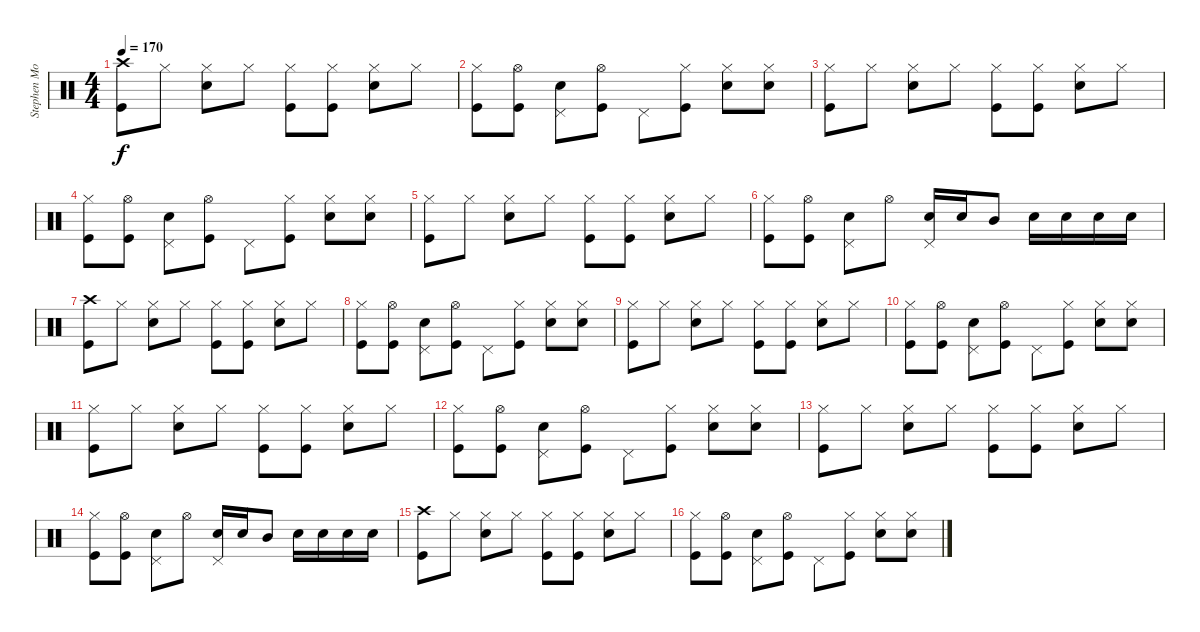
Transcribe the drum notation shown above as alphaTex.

\track ("Stephen Morris (Drums)" "Stephen Mo") {instrument percussion}
\staff {score}
\articulation defaults
\ts (4 4)
\tempo 170
\clef neutral
\ks c
("Crash high (hit)" "Kick (hit)").8{dy f} "Hi-Hat (closed)".8 ("Hi-Hat (closed)" "Electric Snare (hit)").8 "Hi-Hat (closed)".8 ("Hi-Hat (closed)" "Kick (hit)").8 ("Hi-Hat (closed)" "Kick (hit)").8 ("Hi-Hat (closed)" "Electric Snare (hit)").8 "Hi-Hat (closed)".8 |
("Hi-Hat (closed)" "Kick (hit)").8 ("Hi-Hat (open)" "Kick (hit)").8 ("Pedal Hi-Hat (hit)" "Electric Snare (hit)").8 ("Hi-Hat (open)" "Kick (hit)").8 "Pedal Hi-Hat (hit)".8 ("Hi-Hat (closed)" "Kick (hit)").8 ("Hi-Hat (closed)" "Electric Snare (hit)").8 ("Hi-Hat (closed)" "Electric Snare (hit)").8 |
("Hi-Hat (closed)" "Kick (hit)").8 "Hi-Hat (closed)".8 ("Hi-Hat (closed)" "Electric Snare (hit)").8 "Hi-Hat (closed)".8 ("Hi-Hat (closed)" "Kick (hit)").8 ("Hi-Hat (closed)" "Kick (hit)").8 ("Hi-Hat (closed)" "Electric Snare (hit)").8 "Hi-Hat (closed)".8 |
("Hi-Hat (closed)" "Kick (hit)").8 ("Hi-Hat (open)" "Kick (hit)").8 ("Pedal Hi-Hat (hit)" "Electric Snare (hit)").8 ("Hi-Hat (open)" "Kick (hit)").8 "Pedal Hi-Hat (hit)".8 ("Hi-Hat (closed)" "Kick (hit)").8 ("Hi-Hat (closed)" "Electric Snare (hit)").8 ("Hi-Hat (closed)" "Electric Snare (hit)").8 |
("Hi-Hat (closed)" "Kick (hit)").8 "Hi-Hat (closed)".8 ("Hi-Hat (closed)" "Electric Snare (hit)").8 "Hi-Hat (closed)".8 ("Hi-Hat (closed)" "Kick (hit)").8 ("Hi-Hat (closed)" "Kick (hit)").8 ("Hi-Hat (closed)" "Electric Snare (hit)").8 "Hi-Hat (closed)".8 |
("Hi-Hat (closed)" "Kick (hit)").8 ("Hi-Hat (open)" "Kick (hit)").8 ("Pedal Hi-Hat (hit)" "Electric Snare (hit)").8 "Hi-Hat (open)".8 ("Pedal Hi-Hat (hit)" "Electric Snare (hit)").16 "Electric Snare (hit)".16 "Mid Tom (hit)".8 "Electric Snare (hit)".16 "Electric Snare (hit)".16 "Electric Snare (hit)".16 "Electric Snare (hit)".16 |
("Crash high (hit)" "Kick (hit)").8 "Hi-Hat (closed)".8 ("Hi-Hat (closed)" "Electric Snare (hit)").8 "Hi-Hat (closed)".8 ("Hi-Hat (closed)" "Kick (hit)").8 ("Hi-Hat (closed)" "Kick (hit)").8 ("Hi-Hat (closed)" "Electric Snare (hit)").8 "Hi-Hat (closed)".8 |
("Hi-Hat (closed)" "Kick (hit)").8 ("Hi-Hat (open)" "Kick (hit)").8 ("Pedal Hi-Hat (hit)" "Electric Snare (hit)").8 ("Hi-Hat (open)" "Kick (hit)").8 "Pedal Hi-Hat (hit)".8 ("Hi-Hat (closed)" "Kick (hit)").8 ("Hi-Hat (closed)" "Electric Snare (hit)").8 ("Hi-Hat (closed)" "Electric Snare (hit)").8 |
("Hi-Hat (closed)" "Kick (hit)").8 "Hi-Hat (closed)".8 ("Hi-Hat (closed)" "Electric Snare (hit)").8 "Hi-Hat (closed)".8 ("Hi-Hat (closed)" "Kick (hit)").8 ("Hi-Hat (closed)" "Kick (hit)").8 ("Hi-Hat (closed)" "Electric Snare (hit)").8 "Hi-Hat (closed)".8 |
("Hi-Hat (closed)" "Kick (hit)").8 ("Hi-Hat (open)" "Kick (hit)").8 ("Pedal Hi-Hat (hit)" "Electric Snare (hit)").8 ("Hi-Hat (open)" "Kick (hit)").8 "Pedal Hi-Hat (hit)".8 ("Hi-Hat (closed)" "Kick (hit)").8 ("Hi-Hat (closed)" "Electric Snare (hit)").8 ("Hi-Hat (closed)" "Electric Snare (hit)").8 |
("Hi-Hat (closed)" "Kick (hit)").8 "Hi-Hat (closed)".8 ("Hi-Hat (closed)" "Electric Snare (hit)").8 "Hi-Hat (closed)".8 ("Hi-Hat (closed)" "Kick (hit)").8 ("Hi-Hat (closed)" "Kick (hit)").8 ("Hi-Hat (closed)" "Electric Snare (hit)").8 "Hi-Hat (closed)".8 |
("Hi-Hat (closed)" "Kick (hit)").8 ("Hi-Hat (open)" "Kick (hit)").8 ("Pedal Hi-Hat (hit)" "Electric Snare (hit)").8 ("Hi-Hat (open)" "Kick (hit)").8 "Pedal Hi-Hat (hit)".8 ("Hi-Hat (closed)" "Kick (hit)").8 ("Hi-Hat (closed)" "Electric Snare (hit)").8 ("Hi-Hat (closed)" "Electric Snare (hit)").8 |
("Hi-Hat (closed)" "Kick (hit)").8 "Hi-Hat (closed)".8 ("Hi-Hat (closed)" "Electric Snare (hit)").8 "Hi-Hat (closed)".8 ("Hi-Hat (closed)" "Kick (hit)").8 ("Hi-Hat (closed)" "Kick (hit)").8 ("Hi-Hat (closed)" "Electric Snare (hit)").8 "Hi-Hat (closed)".8 |
("Hi-Hat (closed)" "Kick (hit)").8 ("Hi-Hat (open)" "Kick (hit)").8 ("Pedal Hi-Hat (hit)" "Electric Snare (hit)").8 "Hi-Hat (open)".8 ("Pedal Hi-Hat (hit)" "Electric Snare (hit)").16 "Electric Snare (hit)".16 "Mid Tom (hit)".8 "Electric Snare (hit)".16 "Electric Snare (hit)".16 "Electric Snare (hit)".16 "Electric Snare (hit)".16 |
("Crash high (hit)" "Kick (hit)").8 "Hi-Hat (closed)".8 ("Hi-Hat (closed)" "Electric Snare (hit)").8 "Hi-Hat (closed)".8 ("Hi-Hat (closed)" "Kick (hit)").8 ("Hi-Hat (closed)" "Kick (hit)").8 ("Hi-Hat (closed)" "Electric Snare (hit)").8 "Hi-Hat (closed)".8 |
("Hi-Hat (closed)" "Kick (hit)").8 ("Hi-Hat (open)" "Kick (hit)").8 ("Pedal Hi-Hat (hit)" "Electric Snare (hit)").8 ("Hi-Hat (open)" "Kick (hit)").8 "Pedal Hi-Hat (hit)".8 ("Hi-Hat (closed)" "Kick (hit)").8 ("Hi-Hat (closed)" "Electric Snare (hit)").8 ("Hi-Hat (closed)" "Electric Snare (hit)").8
